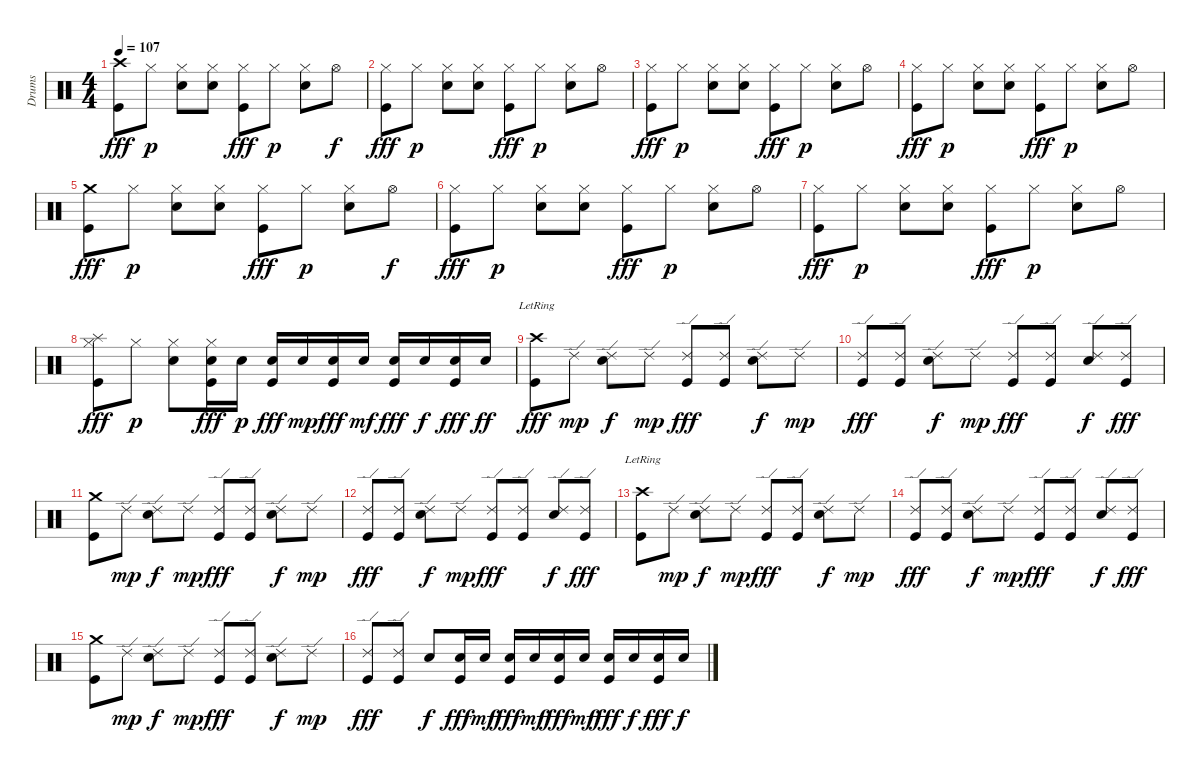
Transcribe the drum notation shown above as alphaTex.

\track ("Drums" "Drums") {instrument percussion}
\staff {score}
\articulation defaults
\ts (4 4)
\tempo 107
\clef neutral
\ks c
("Crash high (hit)" "Kick (hit)").8{dy fff} "Hi-Hat (closed)".8{dy p} ("Electric Snare (hit)" "Hi-Hat (closed)").8 ("Electric Snare (hit)" "Hi-Hat (closed)").8 ("Hi-Hat (closed)" "Kick (hit)").8{dy fff} "Hi-Hat (closed)".8{dy p} ("Electric Snare (hit)" "Hi-Hat (closed)").8 "Hi-Hat (open)".8{dy f} |
("Hi-Hat (closed)" "Kick (hit)").8{dy fff} "Hi-Hat (closed)".8{dy p} ("Electric Snare (hit)" "Hi-Hat (closed)").8 ("Electric Snare (hit)" "Hi-Hat (closed)").8 ("Hi-Hat (closed)" "Kick (hit)").8{dy fff} "Hi-Hat (closed)".8{dy p} ("Electric Snare (hit)" "Hi-Hat (closed)").8 "Hi-Hat (open)".8 |
("Hi-Hat (closed)" "Kick (hit)").8{dy fff} "Hi-Hat (closed)".8{dy p} ("Electric Snare (hit)" "Hi-Hat (closed)").8 ("Electric Snare (hit)" "Hi-Hat (closed)").8 ("Hi-Hat (closed)" "Kick (hit)").8{dy fff} "Hi-Hat (closed)".8{dy p} ("Electric Snare (hit)" "Hi-Hat (closed)").8 "Hi-Hat (open)".8 |
("Hi-Hat (closed)" "Kick (hit)").8{dy fff} "Hi-Hat (closed)".8{dy p} ("Electric Snare (hit)" "Hi-Hat (closed)").8 ("Electric Snare (hit)" "Hi-Hat (closed)").8 ("Hi-Hat (closed)" "Kick (hit)").8{dy fff} "Hi-Hat (closed)".8{dy p} ("Electric Snare (hit)" "Hi-Hat (closed)").8 "Hi-Hat (open)".8 |
("Crash medium (hit)" "Kick (hit)").8{dy fff} "Hi-Hat (closed)".8{dy p} ("Electric Snare (hit)" "Hi-Hat (closed)").8 ("Electric Snare (hit)" "Hi-Hat (closed)").8 ("Hi-Hat (closed)" "Kick (hit)").8{dy fff} "Hi-Hat (closed)".8{dy p} ("Electric Snare (hit)" "Hi-Hat (closed)").8 "Hi-Hat (open)".8{dy f} |
("Hi-Hat (closed)" "Kick (hit)").8{dy fff} "Hi-Hat (closed)".8{dy p} ("Electric Snare (hit)" "Hi-Hat (closed)").8 ("Electric Snare (hit)" "Hi-Hat (closed)").8 ("Hi-Hat (closed)" "Kick (hit)").8{dy fff} "Hi-Hat (closed)".8{dy p} ("Electric Snare (hit)" "Hi-Hat (closed)").8 "Hi-Hat (open)".8 |
("Hi-Hat (closed)" "Kick (hit)").8{dy fff} "Hi-Hat (closed)".8{dy p} ("Electric Snare (hit)" "Hi-Hat (closed)").8 ("Electric Snare (hit)" "Hi-Hat (closed)").8 ("Hi-Hat (closed)" "Kick (hit)").8{dy fff} "Hi-Hat (closed)".8{dy p} ("Electric Snare (hit)" "Hi-Hat (closed)").8 "Hi-Hat (open)".8 |
("Splash (hit)" "Hi-Hat (closed)" "Kick (hit)").8{dy fff} "Hi-Hat (closed)".8{dy p} ("Electric Snare (hit)" "Hi-Hat (closed)").8 ("Electric Snare (hit)" "Hi-Hat (closed)" "Kick (hit)").16{dy fff} "Electric Snare (hit)".16{dy p} ("Electric Snare (hit)" "Kick (hit)").16{dy fff} "Electric Snare (hit)".16{dy mp} ("Electric Snare (hit)" "Kick (hit)").16{dy fff} "Electric Snare (hit)".16{dy mf} ("Electric Snare (hit)" "Kick (hit)").16{dy fff} "Electric Snare (hit)".16{dy f} ("Electric Snare (hit)" "Kick (hit)").16{dy fff} "Electric Snare (hit)".16{dy ff} |
("Crash high (hit)"{lr} "Kick (hit)").8{dy fff volume 16} "Ride (edge) 2".8{dy mp} ("Ride (edge) 2" "Electric Snare (hit)").8{dy f} "Ride (edge) 2".8{dy mp} ("Ride (edge) 2" "Kick (hit)").8{dy fff} ("Ride (edge) 2" "Kick (hit)").8 ("Ride (edge) 2" "Electric Snare (hit)").8{dy f} "Ride (edge) 2".8{dy mp} |
("Ride (edge) 2" "Kick (hit)").8{dy fff} ("Ride (edge) 2" "Kick (hit)").8 ("Ride (edge) 2" "Electric Snare (hit)").8{dy f} "Ride (edge) 2".8{dy mp} ("Ride (edge) 2" "Kick (hit)").8{dy fff} ("Ride (edge) 2" "Kick (hit)").8 ("Ride (edge) 2" "Electric Snare (hit)").8{dy f} ("Ride (edge) 2" "Kick (hit)").8{dy fff} |
("Crash medium (hit)" "Kick (hit)").8 "Ride (edge) 2".8{dy mp} ("Ride (edge) 2" "Electric Snare (hit)").8{dy f} "Ride (edge) 2".8{dy mp} ("Ride (edge) 2" "Kick (hit)").8{dy fff} ("Ride (edge) 2" "Kick (hit)").8 ("Ride (edge) 2" "Electric Snare (hit)").8{dy f} "Ride (edge) 2".8{dy mp} |
("Ride (edge) 2" "Kick (hit)").8{dy fff} ("Ride (edge) 2" "Kick (hit)").8 ("Ride (edge) 2" "Electric Snare (hit)").8{dy f} "Ride (edge) 2".8{dy mp} ("Ride (edge) 2" "Kick (hit)").8{dy fff} ("Ride (edge) 2" "Kick (hit)").8 ("Ride (edge) 2" "Electric Snare (hit)").8{dy f} ("Ride (edge) 2" "Kick (hit)").8{dy fff} |
("Crash high (hit)"{lr} "Kick (hit)").8 "Ride (edge) 2".8{dy mp} ("Ride (edge) 2" "Electric Snare (hit)").8{dy f} "Ride (edge) 2".8{dy mp} ("Ride (edge) 2" "Kick (hit)").8{dy fff} ("Ride (edge) 2" "Kick (hit)").8 ("Ride (edge) 2" "Electric Snare (hit)").8{dy f} "Ride (edge) 2".8{dy mp} |
("Ride (edge) 2" "Kick (hit)").8{dy fff} ("Ride (edge) 2" "Kick (hit)").8 ("Ride (edge) 2" "Electric Snare (hit)").8{dy f} "Ride (edge) 2".8{dy mp} ("Ride (edge) 2" "Kick (hit)").8{dy fff} ("Ride (edge) 2" "Kick (hit)").8 ("Ride (edge) 2" "Electric Snare (hit)").8{dy f} ("Ride (edge) 2" "Kick (hit)").8{dy fff} |
("Crash medium (hit)" "Kick (hit)").8 "Ride (edge) 2".8{dy mp} ("Ride (edge) 2" "Electric Snare (hit)").8{dy f} "Ride (edge) 2".8{dy mp} ("Ride (edge) 2" "Kick (hit)").8{dy fff} ("Ride (edge) 2" "Kick (hit)").8 ("Ride (edge) 2" "Electric Snare (hit)").8{dy f} "Ride (edge) 2".8{dy mp} |
("Ride (edge) 2" "Kick (hit)").8{dy fff} ("Ride (edge) 2" "Kick (hit)").8 "Electric Snare (hit)".8{dy f} ("Electric Snare (hit)" "Kick (hit)").16{dy fff} "Electric Snare (hit)".16{dy mf} ("Electric Snare (hit)" "Kick (hit)").16{dy fff} "Electric Snare (hit)".16{dy mf} ("Electric Snare (hit)" "Kick (hit)").16{dy fff} "Electric Snare (hit)".16{dy mf} ("Electric Snare (hit)" "Kick (hit)").16{dy fff} "Electric Snare (hit)".16{dy f} ("Electric Snare (hit)" "Kick (hit)").16{dy fff} "Electric Snare (hit)".16{dy f}
